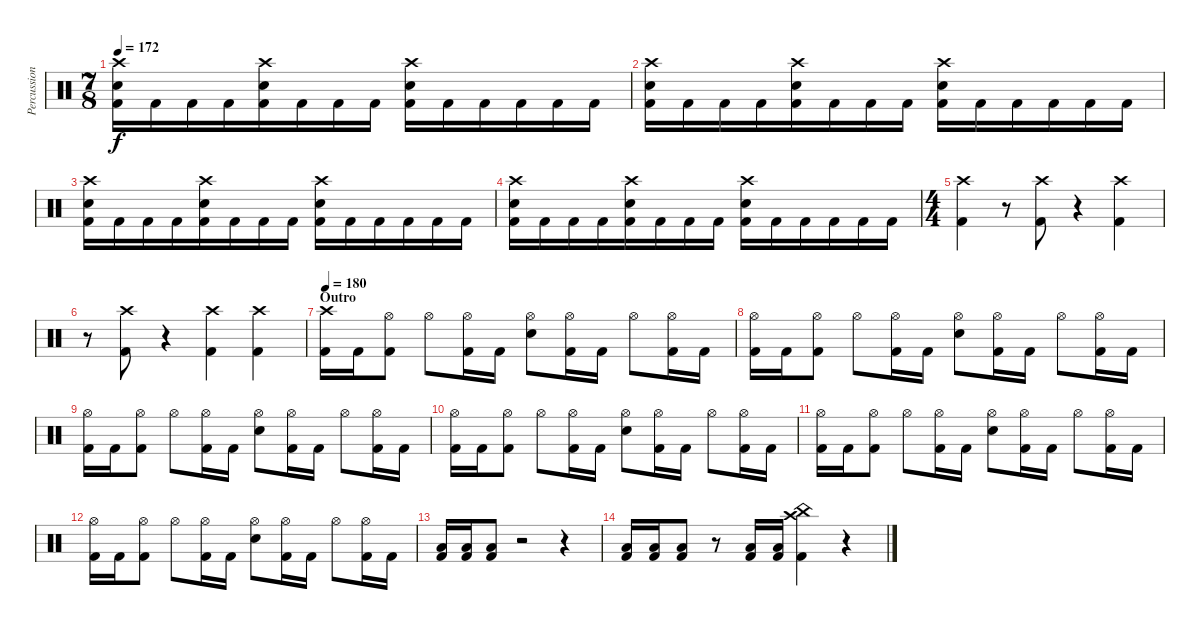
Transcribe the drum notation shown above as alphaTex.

\track ("Percussion" "Percussion") {instrument percussion}
\staff {score}
\articulation defaults
\ts (7 8)
\tempo 172
\clef neutral
\ks c
("Crash high (hit)" "Electric Snare (hit)" "Kick (hit) 2").16{dy f} "Kick (hit) 2".16 "Kick (hit) 2".16 "Kick (hit) 2".16 ("Crash high (hit)" "Electric Snare (hit)" "Kick (hit) 2").16 "Kick (hit) 2".16 "Kick (hit) 2".16 "Kick (hit) 2".16 ("Crash high (hit)" "Electric Snare (hit)" "Kick (hit) 2").16 "Kick (hit) 2".16 "Kick (hit) 2".16 "Kick (hit) 2".16 "Kick (hit) 2".16 "Kick (hit) 2".16 |
("Crash high (hit)" "Electric Snare (hit)" "Kick (hit) 2").16 "Kick (hit) 2".16 "Kick (hit) 2".16 "Kick (hit) 2".16 ("Crash high (hit)" "Electric Snare (hit)" "Kick (hit) 2").16 "Kick (hit) 2".16 "Kick (hit) 2".16 "Kick (hit) 2".16 ("Crash high (hit)" "Electric Snare (hit)" "Kick (hit) 2").16 "Kick (hit) 2".16 "Kick (hit) 2".16 "Kick (hit) 2".16 "Kick (hit) 2".16 "Kick (hit) 2".16 |
("Crash high (hit)" "Electric Snare (hit)" "Kick (hit) 2").16 "Kick (hit) 2".16 "Kick (hit) 2".16 "Kick (hit) 2".16 ("Crash high (hit)" "Electric Snare (hit)" "Kick (hit) 2").16 "Kick (hit) 2".16 "Kick (hit) 2".16 "Kick (hit) 2".16 ("Crash high (hit)" "Electric Snare (hit)" "Kick (hit) 2").16 "Kick (hit) 2".16 "Kick (hit) 2".16 "Kick (hit) 2".16 "Kick (hit) 2".16 "Kick (hit) 2".16 |
("Crash high (hit)" "Electric Snare (hit)" "Kick (hit) 2").16 "Kick (hit) 2".16 "Kick (hit) 2".16 "Kick (hit) 2".16 ("Crash high (hit)" "Electric Snare (hit)" "Kick (hit) 2").16 "Kick (hit) 2".16 "Kick (hit) 2".16 "Kick (hit) 2".16 ("Crash high (hit)" "Electric Snare (hit)" "Kick (hit) 2").16 "Kick (hit) 2".16 "Kick (hit) 2".16 "Kick (hit) 2".16 "Kick (hit) 2".16 "Kick (hit) 2".16 |
\ts (4 4)
("Crash high (hit)" "Kick (hit) 2").4 r.8 ("Crash high (hit)" "Kick (hit) 2").8 r.4 ("Crash high (hit)" "Kick (hit) 2").4 |
r.8 ("Crash high (hit)" "Kick (hit) 2").8 r.4 ("Crash high (hit)" "Kick (hit) 2").4 ("Crash high (hit)" "Kick (hit) 2").4 |
\section ("" "Outro")
\tempo 180
("Crash high (hit)" "Kick (hit) 2").16 "Kick (hit) 2".16 ("Hi-Hat (open)" "Kick (hit) 2").8 "Hi-Hat (open)".8 ("Hi-Hat (open)" "Kick (hit) 2").16 "Kick (hit) 2".16 ("Hi-Hat (open)" "Electric Snare (hit)").8 ("Hi-Hat (open)" "Kick (hit) 2").16 "Kick (hit) 2".16 "Hi-Hat (open)".8 ("Hi-Hat (open)" "Kick (hit) 2").16 "Kick (hit) 2".16 |
("Hi-Hat (open)" "Kick (hit) 2").16 "Kick (hit) 2".16 ("Hi-Hat (open)" "Kick (hit) 2").8 "Hi-Hat (open)".8 ("Hi-Hat (open)" "Kick (hit) 2").16 "Kick (hit) 2".16 ("Hi-Hat (open)" "Electric Snare (hit)").8 ("Hi-Hat (open)" "Kick (hit) 2").16 "Kick (hit) 2".16 "Hi-Hat (open)".8 ("Hi-Hat (open)" "Kick (hit) 2").16 "Kick (hit) 2".16 |
("Hi-Hat (open)" "Kick (hit) 2").16 "Kick (hit) 2".16 ("Hi-Hat (open)" "Kick (hit) 2").8 "Hi-Hat (open)".8 ("Hi-Hat (open)" "Kick (hit) 2").16 "Kick (hit) 2".16 ("Hi-Hat (open)" "Electric Snare (hit)").8 ("Hi-Hat (open)" "Kick (hit) 2").16 "Kick (hit) 2".16 "Hi-Hat (open)".8 ("Hi-Hat (open)" "Kick (hit) 2").16 "Kick (hit) 2".16 |
("Hi-Hat (open)" "Kick (hit) 2").16 "Kick (hit) 2".16 ("Hi-Hat (open)" "Kick (hit) 2").8 "Hi-Hat (open)".8 ("Hi-Hat (open)" "Kick (hit) 2").16 "Kick (hit) 2".16 ("Hi-Hat (open)" "Electric Snare (hit)").8 ("Hi-Hat (open)" "Kick (hit) 2").16 "Kick (hit) 2".16 "Hi-Hat (open)".8 ("Hi-Hat (open)" "Kick (hit) 2").16 "Kick (hit) 2".16 |
("Hi-Hat (open)" "Kick (hit) 2").16 "Kick (hit) 2".16 ("Hi-Hat (open)" "Kick (hit) 2").8 "Hi-Hat (open)".8 ("Hi-Hat (open)" "Kick (hit) 2").16 "Kick (hit) 2".16 ("Hi-Hat (open)" "Electric Snare (hit)").8 ("Hi-Hat (open)" "Kick (hit) 2").16 "Kick (hit) 2".16 "Hi-Hat (open)".8 ("Hi-Hat (open)" "Kick (hit) 2").16 "Kick (hit) 2".16 |
("Hi-Hat (open)" "Kick (hit) 2").16 "Kick (hit) 2".16 ("Hi-Hat (open)" "Kick (hit) 2").8 "Hi-Hat (open)".8 ("Hi-Hat (open)" "Kick (hit) 2").16 "Kick (hit) 2".16 ("Hi-Hat (open)" "Electric Snare (hit)").8 ("Hi-Hat (open)" "Kick (hit) 2").16 "Kick (hit) 2".16 "Hi-Hat (open)".8 ("Hi-Hat (open)" "Kick (hit) 2").16 "Kick (hit) 2".16 |
("Low Floor Tom (hit)" "Kick (hit) 2").16 ("Low Tom (hit)" "Kick (hit) 2").16 ("Low Floor Tom (hit)" "Kick (hit) 2").8 r.2 r.4 |
("Low Floor Tom (hit)" "Kick (hit) 2").16 ("Low Tom (hit)" "Kick (hit) 2").16 ("Low Floor Tom (hit)" "Kick (hit) 2").8 r.8 ("Low Floor Tom (hit)" "Kick (hit) 2").16 ("Low Floor Tom (hit)" "Kick (hit) 2").16 ("China (hit)" "Crash high (hit)" "Kick (hit) 2").4 r.4
